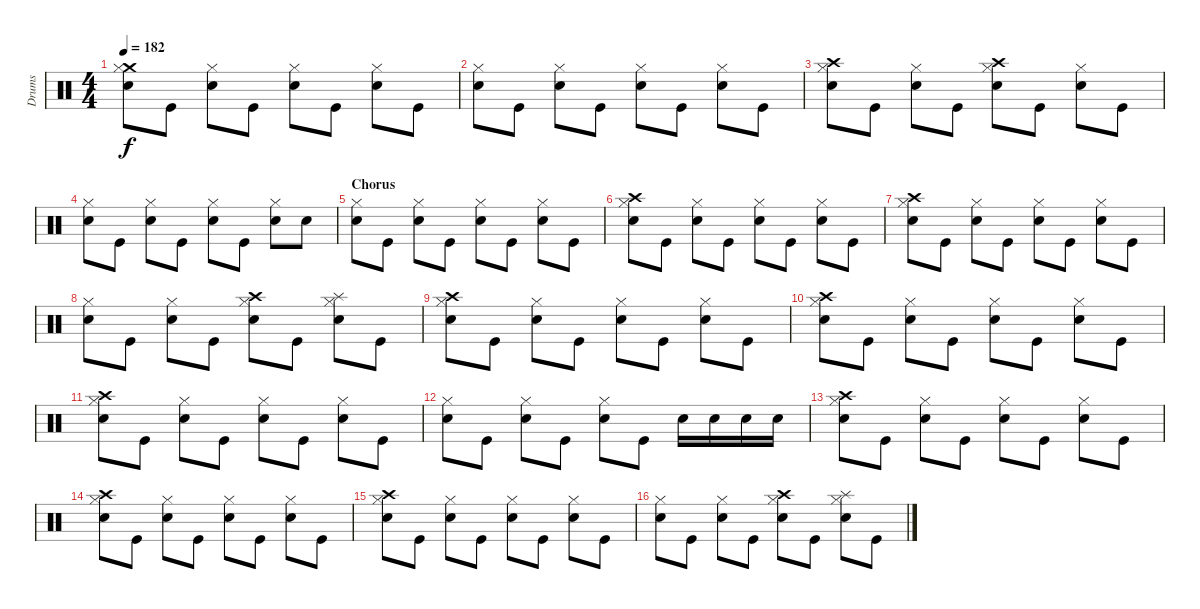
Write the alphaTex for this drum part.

\track ("Drums" "Drums") {instrument percussion}
\staff {score}
\articulation defaults
\ts (4 4)
\tempo 182
\clef neutral
\ks c
("Crash medium (hit)" "Hi-Hat (closed)" "Snare (hit) 2").8{dy f} "Kick (hit)".8 ("Hi-Hat (closed)" "Snare (hit) 2").8 "Kick (hit)".8 ("Hi-Hat (closed)" "Snare (hit) 2").8 "Kick (hit)".8 ("Hi-Hat (closed)" "Snare (hit) 2").8 "Kick (hit)".8 |
("Hi-Hat (closed)" "Snare (hit) 2").8 "Kick (hit)".8 ("Hi-Hat (closed)" "Snare (hit) 2").8 "Kick (hit)".8 ("Hi-Hat (closed)" "Snare (hit) 2").8 "Kick (hit)".8 ("Hi-Hat (closed)" "Snare (hit) 2").8 "Kick (hit)".8 |
("Crash high (hit)" "Hi-Hat (closed)" "Snare (hit) 2").8 "Kick (hit)".8 ("Hi-Hat (closed)" "Snare (hit) 2").8 "Kick (hit)".8 ("Crash high (hit)" "Hi-Hat (closed)" "Snare (hit) 2").8 "Kick (hit)".8 ("Hi-Hat (closed)" "Snare (hit) 2").8 "Kick (hit)".8 |
("Hi-Hat (closed)" "Snare (hit) 2").8 "Kick (hit)".8 ("Hi-Hat (closed)" "Snare (hit) 2").8 "Kick (hit)".8 ("Hi-Hat (closed)" "Snare (hit) 2").8 "Kick (hit)".8 ("Hi-Hat (closed)" "Snare (hit) 2").8 "Snare (hit) 2".8 |
\section ("" "Chorus")
("Hi-Hat (closed)" "Snare (hit) 2").8 "Kick (hit)".8 ("Hi-Hat (closed)" "Snare (hit) 2").8 "Kick (hit)".8 ("Hi-Hat (closed)" "Snare (hit) 2").8 "Kick (hit)".8 ("Hi-Hat (closed)" "Snare (hit) 2").8 "Kick (hit)".8 |
("Crash high (hit)" "Hi-Hat (closed)" "Snare (hit) 2").8 "Kick (hit)".8 ("Hi-Hat (closed)" "Snare (hit) 2").8 "Kick (hit)".8 ("Hi-Hat (closed)" "Snare (hit) 2").8 "Kick (hit)".8 ("Hi-Hat (closed)" "Snare (hit) 2").8 "Kick (hit)".8 |
("Crash high (hit)" "Hi-Hat (closed)" "Snare (hit) 2").8 "Kick (hit)".8 ("Hi-Hat (closed)" "Snare (hit) 2").8 "Kick (hit)".8 ("Hi-Hat (closed)" "Snare (hit) 2").8 "Kick (hit)".8 ("Hi-Hat (closed)" "Snare (hit) 2").8 "Kick (hit)".8 |
("Hi-Hat (closed)" "Snare (hit) 2").8 "Kick (hit)".8 ("Hi-Hat (closed)" "Snare (hit) 2").8 "Kick (hit)".8 ("Crash high (hit)" "Hi-Hat (closed)" "Snare (hit) 2").8 "Kick (hit)".8 ("Splash (hit)" "Hi-Hat (closed)" "Snare (hit) 2").8 "Kick (hit)".8 |
("Crash high (hit)" "Hi-Hat (closed)" "Snare (hit) 2").8 "Kick (hit)".8 ("Hi-Hat (closed)" "Snare (hit) 2").8 "Kick (hit)".8 ("Hi-Hat (closed)" "Snare (hit) 2").8 "Kick (hit)".8 ("Hi-Hat (closed)" "Snare (hit) 2").8 "Kick (hit)".8 |
("Crash high (hit)" "Hi-Hat (closed)" "Snare (hit) 2").8 "Kick (hit)".8 ("Hi-Hat (closed)" "Snare (hit) 2").8 "Kick (hit)".8 ("Hi-Hat (closed)" "Snare (hit) 2").8 "Kick (hit)".8 ("Hi-Hat (closed)" "Snare (hit) 2").8 "Kick (hit)".8 |
("Crash high (hit)" "Hi-Hat (closed)" "Snare (hit) 2").8 "Kick (hit)".8 ("Hi-Hat (closed)" "Snare (hit) 2").8 "Kick (hit)".8 ("Hi-Hat (closed)" "Snare (hit) 2").8 "Kick (hit)".8 ("Hi-Hat (closed)" "Snare (hit) 2").8 "Kick (hit)".8 |
("Hi-Hat (closed)" "Snare (hit) 2").8 "Kick (hit)".8 ("Hi-Hat (closed)" "Snare (hit) 2").8 "Kick (hit)".8 ("Hi-Hat (closed)" "Snare (hit) 2").8 "Kick (hit)".8 "Snare (hit) 2".16 "Snare (hit) 2".16 "Snare (hit) 2".16 "Snare (hit) 2".16 |
("Crash high (hit)" "Hi-Hat (closed)" "Snare (hit) 2").8 "Kick (hit)".8 ("Hi-Hat (closed)" "Snare (hit) 2").8 "Kick (hit)".8 ("Hi-Hat (closed)" "Snare (hit) 2").8 "Kick (hit)".8 ("Hi-Hat (closed)" "Snare (hit) 2").8 "Kick (hit)".8 |
("Crash high (hit)" "Hi-Hat (closed)" "Snare (hit) 2").8 "Kick (hit)".8 ("Hi-Hat (closed)" "Snare (hit) 2").8 "Kick (hit)".8 ("Hi-Hat (closed)" "Snare (hit) 2").8 "Kick (hit)".8 ("Hi-Hat (closed)" "Snare (hit) 2").8 "Kick (hit)".8 |
("Crash high (hit)" "Hi-Hat (closed)" "Snare (hit) 2").8 "Kick (hit)".8 ("Hi-Hat (closed)" "Snare (hit) 2").8 "Kick (hit)".8 ("Hi-Hat (closed)" "Snare (hit) 2").8 "Kick (hit)".8 ("Hi-Hat (closed)" "Snare (hit) 2").8 "Kick (hit)".8 |
("Hi-Hat (closed)" "Snare (hit) 2").8 "Kick (hit)".8 ("Hi-Hat (closed)" "Snare (hit) 2").8 "Kick (hit)".8 ("Crash high (hit)" "Hi-Hat (closed)" "Snare (hit) 2").8 "Kick (hit)".8 ("Splash (hit)" "Hi-Hat (closed)" "Snare (hit) 2").8 "Kick (hit)".8
